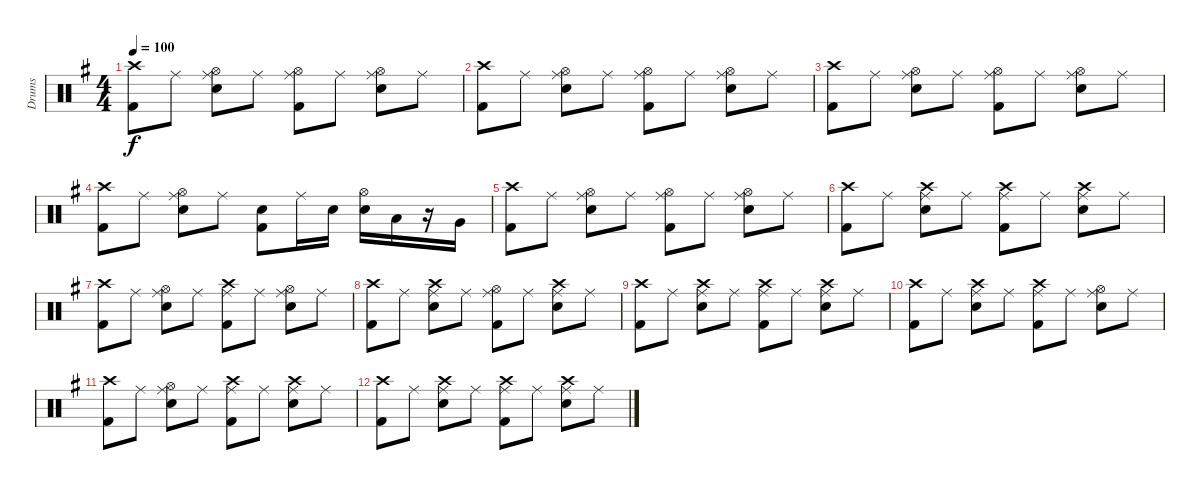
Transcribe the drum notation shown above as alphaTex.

\track ("Drums" "Drums") {instrument percussion}
\staff {score}
\articulation defaults
\ts (4 4)
\tempo 100
\clef neutral
\ks g
("Crash high (hit)" "Kick (hit) 2").8{dy f} "Ride (middle)".8 ("Hi-Hat (open)" "Ride (middle)" "Snare (hit) 2").8 "Ride (middle)".8 ("Hi-Hat (open)" "Ride (middle)" "Kick (hit) 2").8 "Ride (middle)".8 ("Hi-Hat (open)" "Ride (middle)" "Snare (hit) 2").8 "Ride (middle)".8 |
("Crash high (hit)" "Kick (hit) 2").8 "Ride (middle)".8 ("Hi-Hat (open)" "Ride (middle)" "Snare (hit) 2").8 "Ride (middle)".8 ("Hi-Hat (open)" "Ride (middle)" "Kick (hit) 2").8 "Ride (middle)".8 ("Hi-Hat (open)" "Ride (middle)" "Snare (hit) 2").8 "Ride (middle)".8 |
("Crash high (hit)" "Kick (hit) 2").8 "Ride (middle)".8 ("Hi-Hat (open)" "Ride (middle)" "Snare (hit) 2").8 "Ride (middle)".8 ("Hi-Hat (open)" "Ride (middle)" "Kick (hit) 2").8 "Ride (middle)".8 ("Hi-Hat (open)" "Ride (middle)" "Snare (hit) 2").8 "Ride (middle)".8 |
("Crash high (hit)" "Kick (hit) 2").8 "Ride (middle)".8 ("Hi-Hat (open)" "Ride (middle)" "Snare (hit) 2").8 "Ride (middle)".8 ("Snare (hit) 2" "Kick (hit) 2").8 "Ride (middle)".16 "Snare (hit) 2".16 ("Hi-Hat (open)" "Snare (hit) 2").16 "Low Tom (hit)".16 r.16 "Very Low Tom (hit)".16 |
("Crash high (hit)" "Kick (hit) 2").8 "Ride (middle)".8 ("Hi-Hat (open)" "Ride (middle)" "Snare (hit) 2").8 "Ride (middle)".8 ("Hi-Hat (open)" "Ride (middle)" "Kick (hit) 2").8 "Ride (middle)".8 ("Hi-Hat (open)" "Ride (middle)" "Snare (hit) 2").8 "Ride (middle)".8 |
("Crash high (hit)" "Kick (hit) 2").8 "Ride (middle)".8 ("Crash high (hit)" "Ride (middle)" "Snare (hit) 2").8 "Ride (middle)".8 ("Crash high (hit)" "Ride (middle)" "Kick (hit) 2").8 "Ride (middle)".8 ("Crash high (hit)" "Ride (middle)" "Snare (hit) 2").8 "Ride (middle)".8 |
("Crash high (hit)" "Kick (hit) 2").8{volume 5} "Ride (middle)".8 ("Hi-Hat (open)" "Ride (middle)" "Snare (hit) 2").8 "Ride (middle)".8 ("Crash high (hit)" "Ride (middle)" "Kick (hit) 2").8 "Ride (middle)".8 ("Hi-Hat (open)" "Ride (middle)" "Snare (hit) 2").8 "Ride (middle)".8 |
("Crash high (hit)" "Kick (hit) 2").8 "Ride (middle)".8 ("Crash high (hit)" "Ride (middle)" "Snare (hit) 2").8 "Ride (middle)".8 ("Hi-Hat (open)" "Ride (middle)" "Kick (hit) 2").8 "Ride (middle)".8 ("Crash high (hit)" "Ride (middle)" "Snare (hit) 2").8 "Ride (middle)".8 |
("Crash high (hit)" "Kick (hit) 2").8 "Ride (middle)".8 ("Crash high (hit)" "Ride (middle)" "Snare (hit) 2").8 "Ride (middle)".8 ("Crash high (hit)" "Ride (middle)" "Kick (hit) 2").8 "Ride (middle)".8 ("Crash high (hit)" "Ride (middle)" "Snare (hit) 2").8 "Ride (middle)".8 |
("Crash high (hit)" "Kick (hit) 2").8 "Ride (middle)".8 ("Crash high (hit)" "Ride (middle)" "Snare (hit) 2").8 "Ride (middle)".8 ("Crash high (hit)" "Ride (middle)" "Kick (hit) 2").8 "Ride (middle)".8 ("Hi-Hat (open)" "Ride (middle)" "Snare (hit) 2").8 "Ride (middle)".8 |
("Crash high (hit)" "Kick (hit) 2").8{volume 0} "Ride (middle)".8 ("Hi-Hat (open)" "Ride (middle)" "Snare (hit) 2").8 "Ride (middle)".8 ("Crash high (hit)" "Ride (middle)" "Kick (hit) 2").8 "Ride (middle)".8 ("Crash high (hit)" "Ride (middle)" "Snare (hit) 2").8 "Ride (middle)".8 |
("Crash high (hit)" "Kick (hit) 2").8 "Ride (middle)".8 ("Crash high (hit)" "Ride (middle)" "Snare (hit) 2").8 "Ride (middle)".8 ("Crash high (hit)" "Ride (middle)" "Kick (hit) 2").8 "Ride (middle)".8 ("Crash high (hit)" "Ride (middle)" "Snare (hit) 2").8 "Ride (middle)".8
